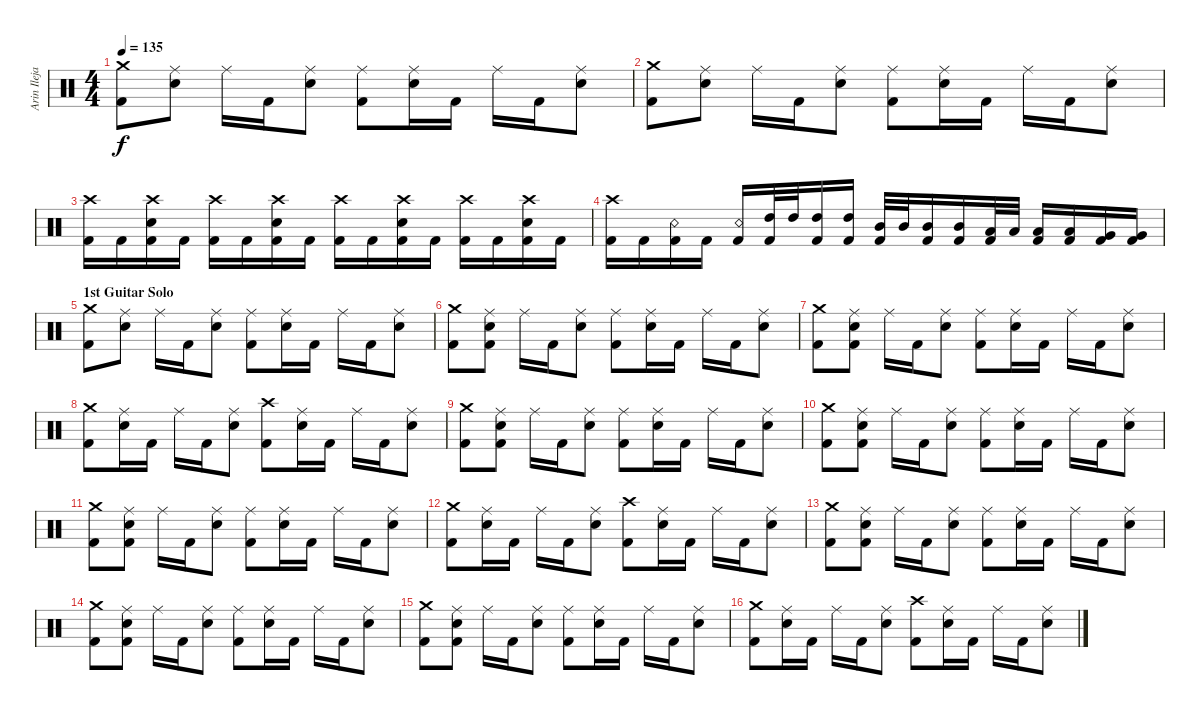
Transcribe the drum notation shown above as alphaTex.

\track ("Arin Ilejay" "Arin Ileja") {instrument percussion}
\staff {score}
\articulation defaults
\ts (4 4)
\tempo 135
\clef neutral
\ks c
("Kick (hit) 2" "Crash medium (hit)").8{dy f} ("Ride (middle)" "Snare (hit) 2").8 "Ride (middle)".16 "Kick (hit) 2".16 ("Ride (middle)" "Snare (hit) 2").8 ("Ride (middle)" "Kick (hit) 2").8 ("Ride (middle)" "Snare (hit) 2").16 "Kick (hit) 2".16 "Ride (middle)".16 "Kick (hit) 2".16 ("Ride (middle)" "Snare (hit) 2").8 |
("Kick (hit) 2" "Crash medium (hit)").8 ("Ride (middle)" "Snare (hit) 2").8 "Ride (middle)".16 "Kick (hit) 2".16 ("Ride (middle)" "Snare (hit) 2").8 ("Kick (hit) 2" "Ride (middle)").8 ("Ride (middle)" "Snare (hit) 2").16 "Kick (hit) 2".16 "Ride (middle)".16 "Kick (hit) 2".16 ("Ride (middle)" "Snare (hit) 2").8 |
("Kick (hit) 2" "Crash high (hit)").16 "Kick (hit) 2".16 ("Kick (hit) 2" "Crash high (hit)" "Snare (hit) 2").16 "Kick (hit) 2".16 ("Kick (hit) 2" "Crash high (hit)").16 "Kick (hit) 2".16 ("Kick (hit) 2" "Crash high (hit)" "Snare (hit) 2").16 "Kick (hit) 2".16 ("Kick (hit) 2" "Crash high (hit)").16 "Kick (hit) 2".16 ("Kick (hit) 2" "Crash high (hit)" "Snare (hit) 2").16 "Kick (hit) 2".16 ("Kick (hit) 2" "Crash high (hit)").16 "Kick (hit) 2".16 ("Kick (hit) 2" "Crash high (hit)" "Snare (hit) 2").16 "Kick (hit) 2".16 |
("Kick (hit) 2" "Crash high (hit)").16 "Kick (hit) 2".16 ("Kick (hit) 2" "Snare (rim shot)").16 "Kick (hit) 2".16 ("Kick (hit) 2" "Snare (rim shot)").16 ("Kick (hit) 2" "High Tom (hit)").32 "High Tom (hit)".32 ("High Tom (hit)" "Kick (hit) 2").16 ("Kick (hit) 2" "High Tom (hit)").16 ("Mid Tom (hit)" "Kick (hit) 2").32 "Mid Tom (hit)".32 ("Mid Tom (hit)" "Kick (hit) 2").16 ("Kick (hit) 2" "Mid Tom (hit)").16 ("Low Tom (hit)" "Kick (hit) 2").32 "Low Tom (hit)".32 ("Low Tom (hit)" "Kick (hit) 2").16 ("Kick (hit) 2" "Low Tom (hit)").16 ("Kick (hit) 2" "Very Low Tom (hit)").16 ("Kick (hit) 2" "Very Low Tom (hit)").16 |
\section ("" "1st Guitar Solo")
("Kick (hit) 2" "Crash medium (hit)").8 ("Ride (middle)" "Snare (hit) 2").8 "Ride (middle)".16 "Kick (hit) 2".16 ("Ride (middle)" "Snare (hit) 2").8 ("Ride (middle)" "Kick (hit) 2").8 ("Ride (middle)" "Snare (hit) 2").16 "Kick (hit) 2".16 "Ride (middle)".16 "Kick (hit) 2".16 ("Ride (middle)" "Snare (hit) 2").8 |
("Kick (hit) 2" "Crash medium (hit)").8 ("Ride (middle)" "Snare (hit) 2" "Kick (hit) 2").8 "Ride (middle)".16 "Kick (hit) 2".16 ("Ride (middle)" "Snare (hit) 2").8 ("Ride (middle)" "Kick (hit) 2").8 ("Ride (middle)" "Snare (hit) 2").16 "Kick (hit) 2".16 "Ride (middle)".16 "Kick (hit) 2".16 ("Ride (middle)" "Snare (hit) 2").8 |
("Kick (hit) 2" "Crash medium (hit)").8 ("Ride (middle)" "Snare (hit) 2" "Kick (hit) 2").8 "Ride (middle)".16 "Kick (hit) 2".16 ("Ride (middle)" "Snare (hit) 2").8 ("Kick (hit) 2" "Ride (middle)").8 ("Ride (middle)" "Snare (hit) 2").16 "Kick (hit) 2".16 "Ride (middle)".16 "Kick (hit) 2".16 ("Ride (middle)" "Snare (hit) 2").8 |
("Kick (hit) 2" "Crash medium (hit)").8 ("Ride (middle)" "Snare (hit) 2").16 "Kick (hit) 2".16 "Ride (middle)".16 "Kick (hit) 2".16 ("Ride (middle)" "Snare (hit) 2").8 ("Kick (hit) 2" "Crash high (hit)").8 ("Ride (middle)" "Snare (hit) 2").16 "Kick (hit) 2".16 "Ride (middle)".16 "Kick (hit) 2".16 ("Ride (middle)" "Snare (hit) 2").8 |
("Kick (hit) 2" "Crash medium (hit)").8 ("Ride (middle)" "Snare (hit) 2" "Kick (hit) 2").8 "Ride (middle)".16 "Kick (hit) 2".16 ("Ride (middle)" "Snare (hit) 2").8 ("Ride (middle)" "Kick (hit) 2").8 ("Ride (middle)" "Snare (hit) 2").16 "Kick (hit) 2".16 "Ride (middle)".16 "Kick (hit) 2".16 ("Ride (middle)" "Snare (hit) 2").8 |
("Kick (hit) 2" "Crash medium (hit)").8 ("Ride (middle)" "Snare (hit) 2" "Kick (hit) 2").8 "Ride (middle)".16 "Kick (hit) 2".16 ("Ride (middle)" "Snare (hit) 2").8 ("Ride (middle)" "Kick (hit) 2").8 ("Ride (middle)" "Snare (hit) 2").16 "Kick (hit) 2".16 "Ride (middle)".16 "Kick (hit) 2".16 ("Ride (middle)" "Snare (hit) 2").8 |
("Kick (hit) 2" "Crash medium (hit)").8 ("Ride (middle)" "Snare (hit) 2" "Kick (hit) 2").8 "Ride (middle)".16 "Kick (hit) 2".16 ("Ride (middle)" "Snare (hit) 2").8 ("Kick (hit) 2" "Ride (middle)").8 ("Ride (middle)" "Snare (hit) 2").16 "Kick (hit) 2".16 "Ride (middle)".16 "Kick (hit) 2".16 ("Ride (middle)" "Snare (hit) 2").8 |
("Kick (hit) 2" "Crash medium (hit)").8 ("Ride (middle)" "Snare (hit) 2").16 "Kick (hit) 2".16 "Ride (middle)".16 "Kick (hit) 2".16 ("Ride (middle)" "Snare (hit) 2").8 ("Kick (hit) 2" "Crash high (hit)").8 ("Ride (middle)" "Snare (hit) 2").16 "Kick (hit) 2".16 "Ride (middle)".16 "Kick (hit) 2".16 ("Ride (middle)" "Snare (hit) 2").8 |
("Kick (hit) 2" "Crash medium (hit)").8 ("Ride (middle)" "Snare (hit) 2" "Kick (hit) 2").8 "Ride (middle)".16 "Kick (hit) 2".16 ("Ride (middle)" "Snare (hit) 2").8 ("Ride (middle)" "Kick (hit) 2").8 ("Ride (middle)" "Snare (hit) 2").16 "Kick (hit) 2".16 "Ride (middle)".16 "Kick (hit) 2".16 ("Ride (middle)" "Snare (hit) 2").8 |
("Kick (hit) 2" "Crash medium (hit)").8 ("Ride (middle)" "Snare (hit) 2" "Kick (hit) 2").8 "Ride (middle)".16 "Kick (hit) 2".16 ("Ride (middle)" "Snare (hit) 2").8 ("Ride (middle)" "Kick (hit) 2").8 ("Ride (middle)" "Snare (hit) 2").16 "Kick (hit) 2".16 "Ride (middle)".16 "Kick (hit) 2".16 ("Ride (middle)" "Snare (hit) 2").8 |
("Kick (hit) 2" "Crash medium (hit)").8 ("Ride (middle)" "Snare (hit) 2" "Kick (hit) 2").8 "Ride (middle)".16 "Kick (hit) 2".16 ("Ride (middle)" "Snare (hit) 2").8 ("Kick (hit) 2" "Ride (middle)").8 ("Ride (middle)" "Snare (hit) 2").16 "Kick (hit) 2".16 "Ride (middle)".16 "Kick (hit) 2".16 ("Ride (middle)" "Snare (hit) 2").8 |
("Kick (hit) 2" "Crash medium (hit)").8 ("Ride (middle)" "Snare (hit) 2").16 "Kick (hit) 2".16 "Ride (middle)".16 "Kick (hit) 2".16 ("Ride (middle)" "Snare (hit) 2").8 ("Kick (hit) 2" "Crash high (hit)").8 ("Ride (middle)" "Snare (hit) 2").16 "Kick (hit) 2".16 "Ride (middle)".16 "Kick (hit) 2".16 ("Ride (middle)" "Snare (hit) 2").8
